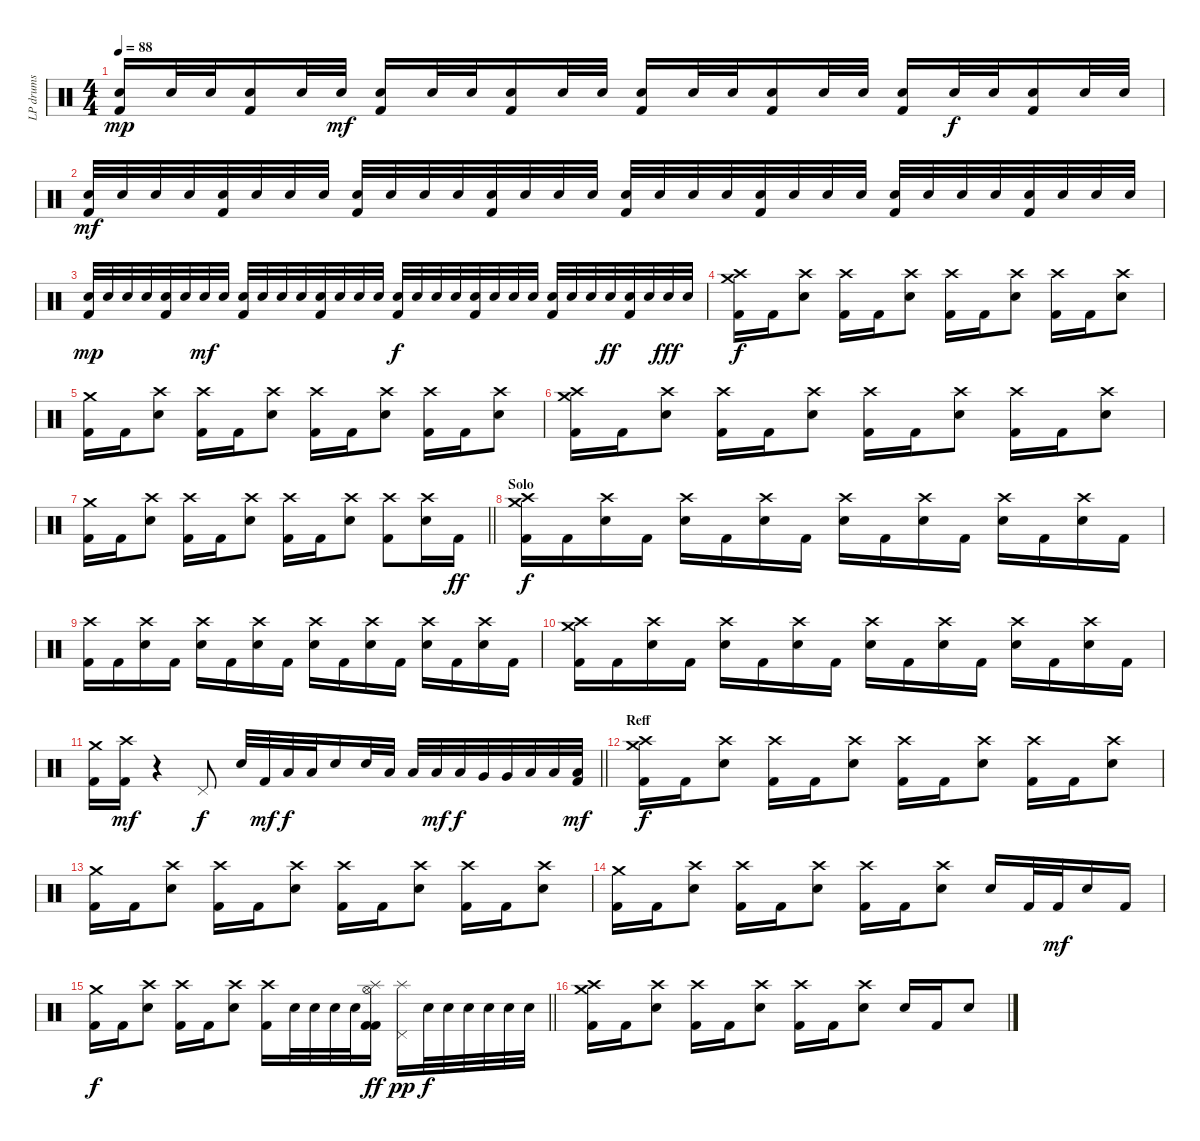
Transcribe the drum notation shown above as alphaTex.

\track ("LP drums" "LP drums") {instrument percussion}
\staff {score}
\articulation defaults
\ts (4 4)
\tempo 88
\clef neutral
\ks c
("Electric Snare (hit)" "Kick (hit) 2").16{dy mp} "Electric Snare (hit)".32 "Electric Snare (hit)".32 ("Electric Snare (hit)" "Kick (hit) 2").16 "Electric Snare (hit)".32 "Electric Snare (hit)".32{dy mf} ("Electric Snare (hit)" "Kick (hit) 2").16 "Electric Snare (hit)".32 "Electric Snare (hit)".32 ("Electric Snare (hit)" "Kick (hit) 2").16 "Electric Snare (hit)".32 "Electric Snare (hit)".32 ("Electric Snare (hit)" "Kick (hit) 2").16 "Electric Snare (hit)".32 "Electric Snare (hit)".32 ("Electric Snare (hit)" "Kick (hit) 2").16 "Electric Snare (hit)".32 "Electric Snare (hit)".32 ("Electric Snare (hit)" "Kick (hit) 2").16 "Electric Snare (hit)".32{dy f} "Electric Snare (hit)".32 ("Electric Snare (hit)" "Kick (hit) 2").16 "Electric Snare (hit)".32 "Electric Snare (hit)".32 |
("Electric Snare (hit)" "Kick (hit) 2").32{dy mf} "Electric Snare (hit)".32 "Electric Snare (hit)".32 "Electric Snare (hit)".32 ("Electric Snare (hit)" "Kick (hit) 2").32 "Electric Snare (hit)".32 "Electric Snare (hit)".32 "Electric Snare (hit)".32 ("Electric Snare (hit)" "Kick (hit) 2").32 "Electric Snare (hit)".32 "Electric Snare (hit)".32 "Electric Snare (hit)".32 ("Electric Snare (hit)" "Kick (hit) 2").32 "Electric Snare (hit)".32 "Electric Snare (hit)".32 "Electric Snare (hit)".32 ("Electric Snare (hit)" "Kick (hit) 2").32 "Electric Snare (hit)".32 "Electric Snare (hit)".32 "Electric Snare (hit)".32 ("Electric Snare (hit)" "Kick (hit) 2").32 "Electric Snare (hit)".32 "Electric Snare (hit)".32 "Electric Snare (hit)".32 ("Electric Snare (hit)" "Kick (hit) 2").32 "Electric Snare (hit)".32 "Electric Snare (hit)".32 "Electric Snare (hit)".32 ("Electric Snare (hit)" "Kick (hit) 2").32 "Electric Snare (hit)".32 "Electric Snare (hit)".32 "Electric Snare (hit)".32 |
("Electric Snare (hit)" "Kick (hit) 2").32{dy mp} "Electric Snare (hit)".32 "Electric Snare (hit)".32 "Electric Snare (hit)".32 ("Electric Snare (hit)" "Kick (hit) 2").32 "Electric Snare (hit)".32 "Electric Snare (hit)".32{dy mf} "Electric Snare (hit)".32 ("Electric Snare (hit)" "Kick (hit) 2").32 "Electric Snare (hit)".32 "Electric Snare (hit)".32 "Electric Snare (hit)".32 ("Electric Snare (hit)" "Kick (hit) 2").32 "Electric Snare (hit)".32 "Electric Snare (hit)".32 "Electric Snare (hit)".32 ("Electric Snare (hit)" "Kick (hit) 2").32{dy f} "Electric Snare (hit)".32 "Electric Snare (hit)".32 "Electric Snare (hit)".32 ("Electric Snare (hit)" "Kick (hit) 2").32 "Electric Snare (hit)".32 "Electric Snare (hit)".32 "Electric Snare (hit)".32 ("Electric Snare (hit)" "Kick (hit) 2").32 "Electric Snare (hit)".32 "Electric Snare (hit)".32 "Electric Snare (hit)".32{dy ff} ("Electric Snare (hit)" "Kick (hit) 2").32 "Electric Snare (hit)".32 "Electric Snare (hit)".32{dy fff} "Electric Snare (hit)".32 |
("Crash high (hit)" "Crash medium (hit)" "Kick (hit) 2").16{dy f} "Kick (hit) 2".16 ("Crash high (hit)" "Electric Snare (hit)").8 ("Crash high (hit)" "Kick (hit) 2").16 "Kick (hit) 2".16 ("Crash high (hit)" "Electric Snare (hit)").8 ("Crash high (hit)" "Kick (hit) 2").16 "Kick (hit) 2".16 ("Crash high (hit)" "Electric Snare (hit)").8 ("Crash high (hit)" "Kick (hit) 2").16 "Kick (hit) 2".16 ("Crash high (hit)" "Electric Snare (hit)").8 |
("Crash medium (hit)" "Kick (hit) 2").16 "Kick (hit) 2".16 ("Crash high (hit)" "Electric Snare (hit)").8 ("Crash high (hit)" "Kick (hit) 2").16 "Kick (hit) 2".16 ("Crash high (hit)" "Electric Snare (hit)").8 ("Crash high (hit)" "Kick (hit) 2").16 "Kick (hit) 2".16 ("Crash high (hit)" "Electric Snare (hit)").8 ("Crash high (hit)" "Kick (hit) 2").16 "Kick (hit) 2".16 ("Crash high (hit)" "Electric Snare (hit)").8 |
("Crash high (hit)" "Crash medium (hit)" "Kick (hit) 2").16 "Kick (hit) 2".16 ("Crash high (hit)" "Electric Snare (hit)").8 ("Crash high (hit)" "Kick (hit) 2").16 "Kick (hit) 2".16 ("Crash high (hit)" "Electric Snare (hit)").8 ("Crash high (hit)" "Kick (hit) 2").16 "Kick (hit) 2".16 ("Crash high (hit)" "Electric Snare (hit)").8 ("Crash high (hit)" "Kick (hit) 2").16 "Kick (hit) 2".16 ("Crash high (hit)" "Electric Snare (hit)").8 |
\barLineRight lightlight
("Crash medium (hit)" "Kick (hit) 2").16 "Kick (hit) 2".16 ("Crash high (hit)" "Electric Snare (hit)").8 ("Crash high (hit)" "Kick (hit) 2").16 "Kick (hit) 2".16 ("Crash high (hit)" "Electric Snare (hit)").8 ("Crash high (hit)" "Kick (hit) 2").16 "Kick (hit) 2".16 ("Crash high (hit)" "Electric Snare (hit)").8 ("Crash high (hit)" "Kick (hit) 2").8 ("Crash high (hit)" "Electric Snare (hit)").16 "Kick (hit) 2".16{dy ff} |
\section ("" "Solo")
("Crash high (hit)" "Crash medium (hit)" "Kick (hit) 2").16{dy f} "Kick (hit) 2".16 ("Crash high (hit)" "Electric Snare (hit)").16 "Kick (hit) 2".16 ("Crash high (hit)" "Electric Snare (hit)").16 "Kick (hit) 2".16 ("Crash high (hit)" "Electric Snare (hit)").16 "Kick (hit) 2".16 ("Crash high (hit)" "Electric Snare (hit)").16 "Kick (hit) 2".16 ("Crash high (hit)" "Electric Snare (hit)").16 "Kick (hit) 2".16 ("Crash high (hit)" "Electric Snare (hit)").16 "Kick (hit) 2".16 ("Crash high (hit)" "Electric Snare (hit)").16 "Kick (hit) 2".16 |
("Crash high (hit)" "Kick (hit) 2").16 "Kick (hit) 2".16 ("Crash high (hit)" "Electric Snare (hit)").16 "Kick (hit) 2".16 ("Crash high (hit)" "Electric Snare (hit)").16 "Kick (hit) 2".16 ("Crash high (hit)" "Electric Snare (hit)").16 "Kick (hit) 2".16 ("Crash high (hit)" "Electric Snare (hit)").16 "Kick (hit) 2".16 ("Crash high (hit)" "Electric Snare (hit)").16 "Kick (hit) 2".16 ("Crash high (hit)" "Electric Snare (hit)").16 "Kick (hit) 2".16 ("Crash high (hit)" "Electric Snare (hit)").16 "Kick (hit) 2".16 |
("Crash high (hit)" "Crash medium (hit)" "Kick (hit) 2").16 "Kick (hit) 2".16 ("Crash high (hit)" "Electric Snare (hit)").16 "Kick (hit) 2".16 ("Crash high (hit)" "Electric Snare (hit)").16 "Kick (hit) 2".16 ("Crash high (hit)" "Electric Snare (hit)").16 "Kick (hit) 2".16 ("Crash high (hit)" "Electric Snare (hit)").16 "Kick (hit) 2".16 ("Crash high (hit)" "Electric Snare (hit)").16 "Kick (hit) 2".16 ("Crash high (hit)" "Electric Snare (hit)").16 "Kick (hit) 2".16 ("Crash high (hit)" "Electric Snare (hit)").16 "Kick (hit) 2".16 |
\barLineRight lightlight
("Crash medium (hit)" "Kick (hit) 2").16 ("Crash high (hit)" "Kick (hit) 2").16{dy mf} r.4 "Pedal Hi-Hat (hit)".8{dy f} "Electric Snare (hit)".32 "Kick (hit) 2".32{dy mf} "Low Floor Tom (hit)".32{dy f} "Low Floor Tom (hit)".32 "Electric Snare (hit)".16 "Electric Snare (hit)".32 "Low Tom (hit)".32 "Low Tom (hit)".32 "Low Tom (hit)".32{dy mf} "Low Tom (hit)".32{dy f} "Very Low Tom (hit)".32 "Very Low Tom (hit)".32 "Low Floor Tom (hit)".32 "Low Floor Tom (hit)".32 ("Low Floor Tom (hit)" "Kick (hit) 2").32{dy mf} |
\section ("" "Reff")
("Crash high (hit)" "Crash medium (hit)" "Kick (hit) 2").16{dy f} "Kick (hit) 2".16 ("Crash high (hit)" "Electric Snare (hit)").8 ("Crash high (hit)" "Kick (hit) 2").16 "Kick (hit) 2".16 ("Crash high (hit)" "Electric Snare (hit)").8 ("Crash high (hit)" "Kick (hit) 2").16 "Kick (hit) 2".16 ("Crash high (hit)" "Electric Snare (hit)").8 ("Crash high (hit)" "Kick (hit) 2").16 "Kick (hit) 2".16 ("Crash high (hit)" "Electric Snare (hit)").8 |
("Crash medium (hit)" "Kick (hit) 2").16 "Kick (hit) 2".16 ("Crash high (hit)" "Electric Snare (hit)").8 ("Crash high (hit)" "Kick (hit) 2").16 "Kick (hit) 2".16 ("Crash high (hit)" "Electric Snare (hit)").8 ("Crash high (hit)" "Kick (hit) 2").16 "Kick (hit) 2".16 ("Crash high (hit)" "Electric Snare (hit)").8 ("Crash high (hit)" "Kick (hit) 2").16 "Kick (hit) 2".16 ("Crash high (hit)" "Electric Snare (hit)").8 |
("Crash medium (hit)" "Kick (hit) 2").16 "Kick (hit) 2".16 ("Crash high (hit)" "Electric Snare (hit)").8 ("Crash high (hit)" "Kick (hit) 2").16 "Kick (hit) 2".16 ("Crash high (hit)" "Electric Snare (hit)").8 ("Crash high (hit)" "Kick (hit) 2").16 "Kick (hit) 2".16 ("Crash high (hit)" "Electric Snare (hit)").8 "Electric Snare (hit)".16 "Kick (hit) 2".32 "Kick (hit) 2".32{dy mf} "Electric Snare (hit)".16 "Kick (hit) 2".16 |
\barLineRight lightlight
("Crash medium (hit)" "Kick (hit) 2").16{dy f} "Kick (hit) 2".16 ("Crash high (hit)" "Electric Snare (hit)").8 ("Crash high (hit)" "Kick (hit) 2").16 "Kick (hit) 2".16 ("Crash high (hit)" "Electric Snare (hit)").8 ("Crash high (hit)" "Kick (hit) 2").16 "Electric Snare (hit)".32 "Electric Snare (hit)".32 "Electric Snare (hit)".32 "Electric Snare (hit)".32 ("Kick (hit) 2" "Splash (hit)" "Hi-Hat (open)" "Kick (hit) 2").16{dy ff} ("Splash (hit)" "Pedal Hi-Hat (hit)").16{dy pp} "Electric Snare (hit)".32{dy f} "Electric Snare (hit)".32 "Electric Snare (hit)".32 "Electric Snare (hit)".32 "Electric Snare (hit)".32 "Electric Snare (hit)".32 |
("Crash high (hit)" "Crash medium (hit)" "Kick (hit) 2").16 "Kick (hit) 2".16 ("Crash high (hit)" "Electric Snare (hit)").8 ("Crash high (hit)" "Kick (hit) 2").16 "Kick (hit) 2".16 ("Crash high (hit)" "Electric Snare (hit)").8 ("Crash high (hit)" "Kick (hit) 2").16 "Kick (hit) 2".16 ("Crash high (hit)" "Electric Snare (hit)").8 "Electric Snare (hit)".16 "Kick (hit) 2".16 "Electric Snare (hit)".8
